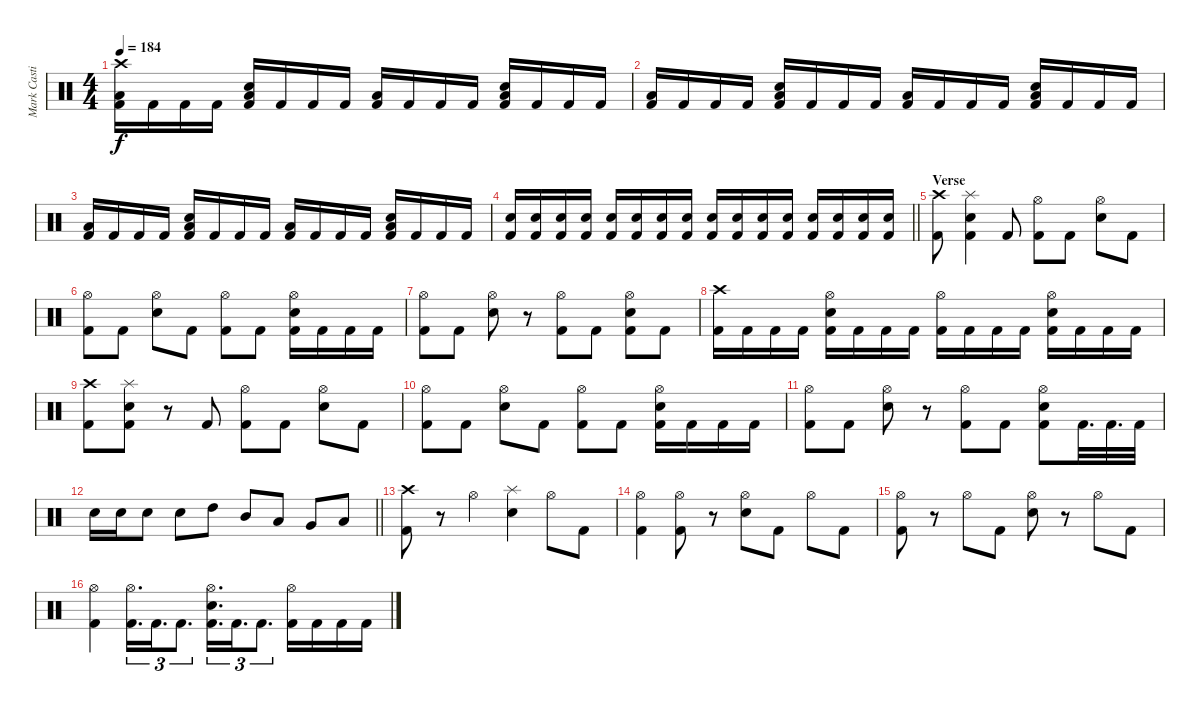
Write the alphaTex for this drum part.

\track ("Mark Castillo" "Mark Casti") {instrument percussion}
\staff {score}
\articulation defaults
\ts (4 4)
\tempo 184
\clef neutral
\ks c
("Crash high (hit)" "Low Floor Tom (hit)" "Kick (hit) 2").16{dy f} "Kick (hit) 2".16 "Kick (hit) 2".16 "Kick (hit) 2".16 ("Electric Snare (hit)" "Low Floor Tom (hit)" "Kick (hit) 2").16 "Kick (hit) 2".16 "Kick (hit) 2".16 "Kick (hit) 2".16 ("Low Floor Tom (hit)" "Kick (hit) 2").16 "Kick (hit) 2".16 "Kick (hit) 2".16 "Kick (hit) 2".16 ("Electric Snare (hit)" "Low Floor Tom (hit)" "Kick (hit) 2").16 "Kick (hit) 2".16 "Kick (hit) 2".16 "Kick (hit) 2".16 |
("Low Floor Tom (hit)" "Kick (hit) 2").16 "Kick (hit) 2".16 "Kick (hit) 2".16 "Kick (hit) 2".16 ("Electric Snare (hit)" "Low Floor Tom (hit)" "Kick (hit) 2").16 "Kick (hit) 2".16 "Kick (hit) 2".16 "Kick (hit) 2".16 ("Low Floor Tom (hit)" "Kick (hit) 2").16 "Kick (hit) 2".16 "Kick (hit) 2".16 "Kick (hit) 2".16 ("Electric Snare (hit)" "Low Floor Tom (hit)" "Kick (hit) 2").16 "Kick (hit) 2".16 "Kick (hit) 2".16 "Kick (hit) 2".16 |
("Low Floor Tom (hit)" "Kick (hit) 2").16 "Kick (hit) 2".16 "Kick (hit) 2".16 "Kick (hit) 2".16 ("Electric Snare (hit)" "Low Floor Tom (hit)" "Kick (hit) 2").16 "Kick (hit) 2".16 "Kick (hit) 2".16 "Kick (hit) 2".16 ("Low Floor Tom (hit)" "Kick (hit) 2").16 "Kick (hit) 2".16 "Kick (hit) 2".16 "Kick (hit) 2".16 ("Electric Snare (hit)" "Low Floor Tom (hit)" "Kick (hit) 2").16 "Kick (hit) 2".16 "Kick (hit) 2".16 "Kick (hit) 2".16{volume 3} |
\barLineRight lightlight
("Electric Snare (hit)" "Kick (hit) 2").16{volume 16} ("Electric Snare (hit)" "Kick (hit) 2").16 ("Electric Snare (hit)" "Kick (hit) 2").16 ("Electric Snare (hit)" "Kick (hit) 2").16 ("Electric Snare (hit)" "Kick (hit) 2").16 ("Electric Snare (hit)" "Kick (hit) 2").16 ("Electric Snare (hit)" "Kick (hit) 2").16 ("Electric Snare (hit)" "Kick (hit) 2").16 ("Electric Snare (hit)" "Kick (hit) 2").16 ("Electric Snare (hit)" "Kick (hit) 2").16 ("Electric Snare (hit)" "Kick (hit) 2").16 ("Electric Snare (hit)" "Kick (hit) 2").16 ("Electric Snare (hit)" "Kick (hit) 2").16 ("Electric Snare (hit)" "Kick (hit) 2").16 ("Electric Snare (hit)" "Kick (hit) 2").16 ("Electric Snare (hit)" "Kick (hit) 2").16 |
\section ("" "Verse")
("Crash high (hit)" "Kick (hit) 2").8 ("Splash (hit)" "Electric Snare (hit)" "Kick (hit) 2").4 "Kick (hit) 2".8 ("Hi-Hat (open)" "Kick (hit) 2").8 "Kick (hit) 2".8 ("Hi-Hat (open)" "Electric Snare (hit)").8 "Kick (hit) 2".8 |
("Hi-Hat (open)" "Kick (hit) 2").8 "Kick (hit) 2".8 ("Hi-Hat (open)" "Electric Snare (hit)").8 "Kick (hit) 2".8 ("Hi-Hat (open)" "Kick (hit) 2").8 "Kick (hit) 2".8 ("Hi-Hat (open)" "Electric Snare (hit)" "Kick (hit) 2").16 "Kick (hit) 2".16 "Kick (hit) 2".16 "Kick (hit) 2".16 |
("Hi-Hat (open)" "Kick (hit) 2").8 "Kick (hit) 2".8 ("Hi-Hat (open)" "Electric Snare (hit)").8 r.8 ("Hi-Hat (open)" "Kick (hit) 2").8 "Kick (hit) 2".8 ("Hi-Hat (open)" "Electric Snare (hit)" "Kick (hit) 2").8 "Kick (hit) 2".8 |
("Crash high (hit)" "Kick (hit) 2").16 "Kick (hit) 2".16 "Kick (hit) 2".16 "Kick (hit) 2".16 ("Hi-Hat (open)" "Electric Snare (hit)" "Kick (hit) 2").16 "Kick (hit) 2".16 "Kick (hit) 2".16 "Kick (hit) 2".16 ("Hi-Hat (open)" "Kick (hit) 2").16 "Kick (hit) 2".16 "Kick (hit) 2".16 "Kick (hit) 2".16 ("Hi-Hat (open)" "Electric Snare (hit)" "Kick (hit) 2").16 "Kick (hit) 2".16 "Kick (hit) 2".16 "Kick (hit) 2".16 |
("Crash high (hit)" "Kick (hit) 2").8 ("Splash (hit)" "Electric Snare (hit)" "Kick (hit) 2").8 r.8 "Kick (hit) 2".8 ("Hi-Hat (open)" "Kick (hit) 2").8 "Kick (hit) 2".8 ("Hi-Hat (open)" "Electric Snare (hit)").8 "Kick (hit) 2".8 |
("Hi-Hat (open)" "Kick (hit) 2").8 "Kick (hit) 2".8 ("Hi-Hat (open)" "Electric Snare (hit)").8 "Kick (hit) 2".8 ("Hi-Hat (open)" "Kick (hit) 2").8 "Kick (hit) 2".8 ("Hi-Hat (open)" "Electric Snare (hit)" "Kick (hit) 2").16 "Kick (hit) 2".16 "Kick (hit) 2".16 "Kick (hit) 2".16 |
("Hi-Hat (open)" "Kick (hit) 2").8 "Kick (hit) 2".8 ("Hi-Hat (open)" "Electric Snare (hit)").8 r.8 ("Hi-Hat (open)" "Kick (hit) 2").8 "Kick (hit) 2".8 ("Hi-Hat (open)" "Electric Snare (hit)" "Kick (hit) 2").8 "Kick (hit) 2".32{d} "Kick (hit) 2".32{d} "Kick (hit) 2".32 |
\barLineRight lightlight "Electric Snare (hit)".16 "Electric Snare (hit)".16 "Electric Snare (hit)".8 "Electric Snare (hit)".8 "High Tom (hit)".8 "Mid Tom (hit)".8 "Low Tom (hit)".8 "Very Low Tom (hit)".8 "Low Floor Tom (hit)".8
|
("Crash high (hit)" "Kick (hit) 2").8 r.8 "Hi-Hat (open)".4 ("Splash (hit)" "Electric Snare (hit)").4 "Hi-Hat (open)".8 "Kick (hit) 2".8 |
("Hi-Hat (open)" "Kick (hit) 2").4 ("Hi-Hat (open)" "Kick (hit) 2").8 r.8 ("Hi-Hat (open)" "Electric Snare (hit)").8 "Kick (hit) 2".8 "Hi-Hat (open)".8 "Kick (hit) 2".8 |
("Hi-Hat (open)" "Kick (hit) 2").8 r.8 "Hi-Hat (open)".8 "Kick (hit) 2".8 ("Hi-Hat (open)" "Electric Snare (hit)").8 r.8 "Hi-Hat (open)".8 "Kick (hit) 2".8 |
("Hi-Hat (open)" "Kick (hit) 2").4 ("Hi-Hat (open)" "Kick (hit) 2").16{d tu (3 2)} "Kick (hit) 2".16{d tu (3 2)} "Kick (hit) 2".8{d tu (3 2)} ("Hi-Hat (open)" "Electric Snare (hit)" "Kick (hit) 2").16{d tu (3 2)} "Kick (hit) 2".16{d tu (3 2)} "Kick (hit) 2".8{d tu (3 2)} ("Hi-Hat (open)" "Kick (hit) 2").16 "Kick (hit) 2".16 "Kick (hit) 2".16 "Kick (hit) 2".16
